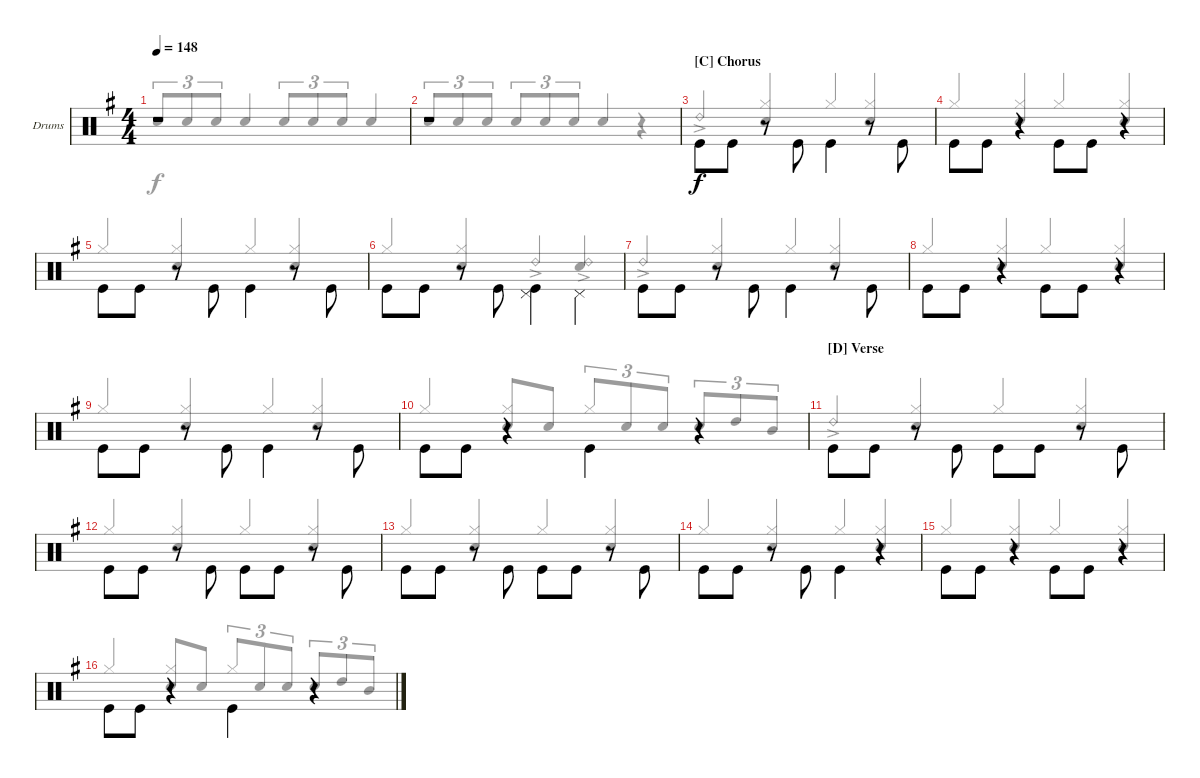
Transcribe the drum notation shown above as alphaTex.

\bracketExtendMode groupsimilarinstruments
\firstSystemTrackNameOrientation horizontal
\otherSystemsTrackNameOrientation horizontal
\track ("Drumkit" "Drums") {instrument percussion}
\staff {score}
\articulation defaults
\voice
\ts (4 4)
\tempo 148
\clef neutral
\scale
1.04288
\ks g
r.1{dy f} |
\scale
0.957125 r.1 |
\section ("C" "Chorus")
\scale
1.04288 "Kick (hit)".8{beam invert} "Kick (hit)".8 r.8{beam invert} "Kick (hit)".8{beam invert} "Kick (hit)".4{beam invert} r.8{beam invert} "Kick (hit)".8{beam invert} |
\scale
0.957125 "Kick (hit)".8{beam invert} "Kick (hit)".8 r.4{beam invert} "Kick (hit)".8{beam invert} "Kick (hit)".8 r.4{beam invert} |
\scale
1.04288 "Kick (hit)".8{beam invert} "Kick (hit)".8 r.8{beam invert} "Kick (hit)".8{beam invert} "Kick (hit)".4{beam invert} r.8{beam invert} "Kick (hit)".8{beam invert} |
\scale
0.957125 "Kick (hit)".8{beam invert} "Kick (hit)".8 r.8{beam invert} "Kick (hit)".8{beam invert} ("Kick (hit)" "Pedal Hi-Hat (hit)").4{beam invert} "Pedal Hi-Hat (hit)".4{beam invert} |
\scale
1.04288 "Kick (hit)".8{beam invert} "Kick (hit)".8 r.8{beam invert} "Kick (hit)".8{beam invert} "Kick (hit)".4{beam invert} r.8{beam invert} "Kick (hit)".8{beam invert} |
\scale
0.957125 "Kick (hit)".8{beam invert} "Kick (hit)".8 r.4{beam invert} "Kick (hit)".8{beam invert} "Kick (hit)".8 r.4{beam invert} |
\scale
1.04288 "Kick (hit)".8{beam invert} "Kick (hit)".8 r.8{beam invert} "Kick (hit)".8{beam invert} "Kick (hit)".4{beam invert} r.8{beam invert} "Kick (hit)".8{beam invert} |
\scale
0.957125 "Kick (hit)".8{beam invert} "Kick (hit)".8 r.4{beam invert} "Kick (hit)".4{beam invert} r.4 |
\section ("D" "Verse")
\scale
1.04288 "Kick (hit)".8{beam invert} "Kick (hit)".8 r.8{beam invert} "Kick (hit)".8{beam invert} "Kick (hit)".8{beam invert} "Kick (hit)".8 r.8{beam invert} "Kick (hit)".8{beam invert} |
\scale
0.957125 "Kick (hit)".8{beam invert} "Kick (hit)".8 r.8{beam invert} "Kick (hit)".8{beam invert} "Kick (hit)".8{beam invert} "Kick (hit)".8 r.8{beam invert} "Kick (hit)".8{beam invert} |
\scale
1.04288 "Kick (hit)".8{beam invert} "Kick (hit)".8 r.8{beam invert} "Kick (hit)".8{beam invert} "Kick (hit)".8{beam invert} "Kick (hit)".8 r.8{beam invert} "Kick (hit)".8{beam invert} |
\scale
0.957125 "Kick (hit)".8{beam invert} "Kick (hit)".8 r.8{beam invert} "Kick (hit)".8{beam invert} "Kick (hit)".4{beam invert} r.4{beam invert} |
\scale
1.04288 "Kick (hit)".8{beam invert} "Kick (hit)".8 r.4{beam invert} "Kick (hit)".8{beam invert} "Kick (hit)".8 r.4{beam invert} |
\scale
0.957125 "Kick (hit)".8{beam invert} "Kick (hit)".8 r.4{beam invert} "Kick (hit)".4{beam invert} r.4
\voice
\clef neutral
\ottava regular
\simile none
\scale
1.04288
\ks g "Snare (hit) 2".8{tu (3 2) dy f beam invert} "Snare (hit) 2".8{tu (3 2)} "Snare (hit) 2".8{tu (3 2)} "Snare (hit) 2".4{beam invert} "Snare (hit) 2".8{tu (3 2) beam invert} "Snare (hit) 2".8{tu (3 2)} "Snare (hit) 2".8{tu (3 2)} "Snare (hit) 2".4{beam invert}
|
\scale
0.957125 "Snare (hit) 2".8{tu (3 2) beam invert} "Snare (hit) 2".8{tu (3 2)} "Snare (hit) 2".8{tu (3 2)} "Snare (hit) 2".8{tu (3 2) beam invert} "Snare (hit) 2".8{tu (3 2)} "Snare (hit) 2".8{tu (3 2)} "Snare (hit) 2".4{beam invert} r.4 |
\scale
1.04288 "Ride (bell) 2"{ac}.4{beam invert} ("Hi-Hat (closed)" "Snare (hit) 2").4{beam invert} "Hi-Hat (closed)".4{beam invert} ("Hi-Hat (closed)" "Snare (hit) 2").4{beam invert} |
\scale
0.957125 "Hi-Hat (closed)".4{beam invert} ("Hi-Hat (closed)" "Snare (hit) 2").4{beam invert} "Hi-Hat (closed)".4{beam invert} ("Hi-Hat (closed)" "Snare (hit) 2").4{beam invert} |
\scale
1.04288 "Hi-Hat (closed)".4{beam invert} ("Hi-Hat (closed)" "Snare (hit) 2").4{beam invert} "Hi-Hat (closed)".4{beam invert} ("Hi-Hat (closed)" "Snare (hit) 2").4{beam invert} |
\scale
0.957125 "Hi-Hat (closed)".4{beam invert} ("Hi-Hat (closed)" "Snare (hit) 2").4{beam invert} "Ride (bell) 2"{ac}.4{beam invert} ("Snare (hit) 2" "Ride (bell) 2"{ac}).4{beam invert} |
\scale
1.04288 "Ride (bell) 2"{ac}.4{beam invert} ("Hi-Hat (closed)" "Snare (hit) 2").4{beam invert} "Hi-Hat (closed)".4{beam invert} ("Hi-Hat (closed)" "Snare (hit) 2").4{beam invert} |
\scale
0.957125 "Hi-Hat (closed)".4{beam invert} ("Hi-Hat (closed)" "Snare (hit) 2").4{beam invert} "Hi-Hat (closed)".4{beam invert} ("Hi-Hat (closed)" "Snare (hit) 2").4{beam invert} |
\scale
1.04288 "Hi-Hat (closed)".4{beam invert} ("Hi-Hat (closed)" "Snare (hit) 2").4{beam invert} "Hi-Hat (closed)".4{beam invert} ("Hi-Hat (closed)" "Snare (hit) 2").4{beam invert} |
\scale
0.957125 "Hi-Hat (closed)".4{beam invert} ("Hi-Hat (closed)" "Snare (hit) 2").8{beam invert} "Snare (hit) 2".8 "Hi-Hat (closed)".8{tu (3 2) beam invert} "Snare (hit) 2".8{tu (3 2)} "Snare (hit) 2".8{tu (3 2)} "Snare (hit) 2".8{tu (3 2) beam invert} "High Tom (hit)".8{tu (3 2)} "Mid Tom (hit)".8{tu (3 2)} |
\scale
1.04288 "Ride (bell) 2"{ac}.4{beam invert} ("Hi-Hat (closed)" "Snare (hit) 2").4{beam invert} "Hi-Hat (closed)".4{beam invert} ("Hi-Hat (closed)" "Snare (hit) 2").4{beam invert} |
\scale
0.957125 "Hi-Hat (closed)".4{beam invert} ("Hi-Hat (closed)" "Snare (hit) 2").4{beam invert} "Hi-Hat (closed)".4{beam invert} ("Hi-Hat (closed)" "Snare (hit) 2").4{beam invert} |
\scale
1.04288 "Hi-Hat (closed)".4{beam invert} ("Hi-Hat (closed)" "Snare (hit) 2").4{beam invert} "Hi-Hat (closed)".4{beam invert} ("Hi-Hat (closed)" "Snare (hit) 2").4{beam invert} |
\scale
0.957125 "Hi-Hat (closed)".4{beam invert} ("Hi-Hat (closed)" "Snare (hit) 2").4{beam invert} "Hi-Hat (closed)".4{beam invert} ("Hi-Hat (closed)" "Snare (hit) 2").4{beam invert} |
\scale
1.04288 "Hi-Hat (closed)".4{beam invert} ("Hi-Hat (closed)" "Snare (hit) 2").4{beam invert} "Hi-Hat (closed)".4{beam invert} ("Hi-Hat (closed)" "Snare (hit) 2").4{beam invert} |
\scale
0.957125 "Hi-Hat (closed)".4{beam invert} ("Hi-Hat (closed)" "Snare (hit) 2").8{beam invert} "Snare (hit) 2".8 "Hi-Hat (closed)".8{tu (3 2) beam invert} "Snare (hit) 2".8{tu (3 2)} "Snare (hit) 2".8{tu (3 2)} "Snare (hit) 2".8{tu (3 2) beam invert} "High Tom (hit)".8{tu (3 2)} "Mid Tom (hit)".8{tu (3 2)}
